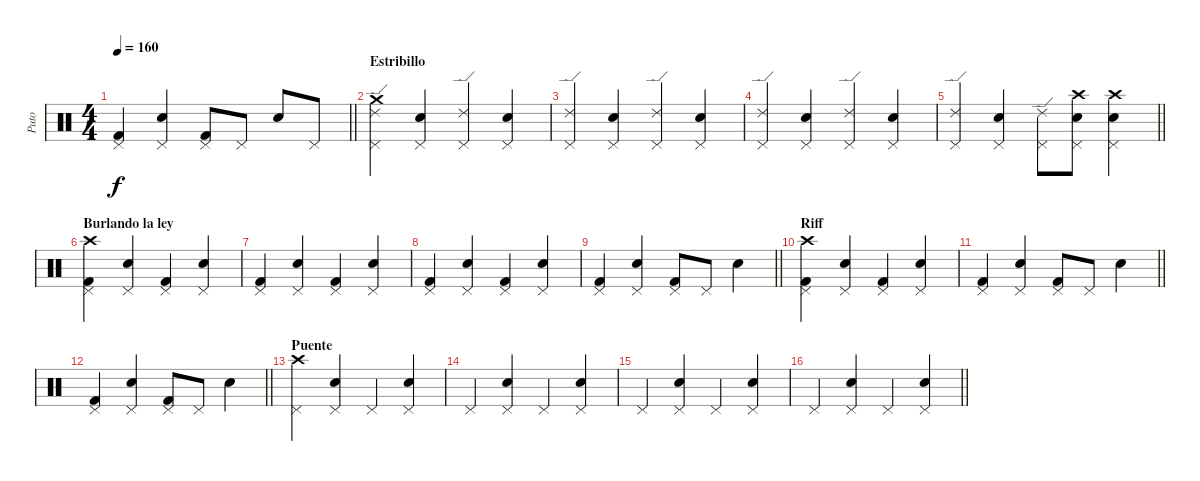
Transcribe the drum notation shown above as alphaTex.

\track ("Puto" "Puto") {instrument percussion}
\staff {score}
\articulation defaults
\ts (4 4)
\tempo 160
\clef neutral
\barLineRight lightlight
\ks c
("Kick (hit) 2" "Pedal Hi-Hat (hit)").4{dy f} ("Snare (hit) 2" "Pedal Hi-Hat (hit)").4 ("Kick (hit) 2" "Pedal Hi-Hat (hit)").8 "Pedal Hi-Hat (hit)".8 "Snare (hit) 2".8 "Pedal Hi-Hat (hit)".8 |
\section ("" "Estribillo")
("Ride (edge) 2" "Crash medium (hit)" "Pedal Hi-Hat (hit)").4 ("Snare (hit) 2" "Pedal Hi-Hat (hit)").4 ("Ride (edge) 2" "Pedal Hi-Hat (hit)").4 ("Snare (hit) 2" "Pedal Hi-Hat (hit)").4 |
("Ride (edge) 2" "Pedal Hi-Hat (hit)").4 ("Snare (hit) 2" "Pedal Hi-Hat (hit)").4 ("Ride (edge) 2" "Pedal Hi-Hat (hit)").4 ("Snare (hit) 2" "Pedal Hi-Hat (hit)").4 |
("Ride (edge) 2" "Pedal Hi-Hat (hit)").4 ("Snare (hit) 2" "Pedal Hi-Hat (hit)").4 ("Ride (edge) 2" "Pedal Hi-Hat (hit)").4 ("Snare (hit) 2" "Pedal Hi-Hat (hit)").4 |
\barLineRight lightlight
("Ride (edge) 2" "Pedal Hi-Hat (hit)").4 ("Snare (hit) 2" "Pedal Hi-Hat (hit)").4 ("Ride (edge) 2" "Pedal Hi-Hat (hit)").8 ("Crash high (hit)" "Snare (hit) 2" "Pedal Hi-Hat (hit)").8 ("Crash high (hit)" "Snare (hit) 2" "Pedal Hi-Hat (hit)").4 |
\section ("" "Burlando la ley")
("Kick (hit) 2" "Crash high (hit)" "Pedal Hi-Hat (hit)").4 ("Snare (hit) 2" "Pedal Hi-Hat (hit)").4 ("Kick (hit) 2" "Pedal Hi-Hat (hit)").4 ("Snare (hit) 2" "Pedal Hi-Hat (hit)").4 |
("Kick (hit) 2" "Pedal Hi-Hat (hit)").4 ("Snare (hit) 2" "Pedal Hi-Hat (hit)").4 ("Kick (hit) 2" "Pedal Hi-Hat (hit)").4 ("Snare (hit) 2" "Pedal Hi-Hat (hit)").4 |
("Kick (hit) 2" "Pedal Hi-Hat (hit)").4 ("Snare (hit) 2" "Pedal Hi-Hat (hit)").4 ("Kick (hit) 2" "Pedal Hi-Hat (hit)").4 ("Snare (hit) 2" "Pedal Hi-Hat (hit)").4 |
\barLineRight lightlight
("Kick (hit) 2" "Pedal Hi-Hat (hit)").4 ("Snare (hit) 2" "Pedal Hi-Hat (hit)").4 ("Kick (hit) 2" "Pedal Hi-Hat (hit)").8 "Pedal Hi-Hat (hit)".8 "Snare (hit) 2".4 |
\section ("" "Riff")
("Kick (hit) 2" "Crash high (hit)" "Pedal Hi-Hat (hit)").4 ("Snare (hit) 2" "Pedal Hi-Hat (hit)").4 ("Kick (hit) 2" "Pedal Hi-Hat (hit)").4 ("Snare (hit) 2" "Pedal Hi-Hat (hit)").4 |
\barLineRight lightlight
("Kick (hit) 2" "Pedal Hi-Hat (hit)").4 ("Snare (hit) 2" "Pedal Hi-Hat (hit)").4 ("Kick (hit) 2" "Pedal Hi-Hat (hit)").8 "Pedal Hi-Hat (hit)".8 "Snare (hit) 2".4 |
\barLineRight lightlight
("Kick (hit) 2" "Pedal Hi-Hat (hit)").4 ("Snare (hit) 2" "Pedal Hi-Hat (hit)").4 ("Kick (hit) 2" "Pedal Hi-Hat (hit)").8 "Pedal Hi-Hat (hit)".8 "Snare (hit) 2".4 |
\section ("" "Puente")
("Crash high (hit)" "Pedal Hi-Hat (hit)").4 ("Snare (hit) 2" "Pedal Hi-Hat (hit)").4 "Pedal Hi-Hat (hit)".4 ("Snare (hit) 2" "Pedal Hi-Hat (hit)").4 |
"Pedal Hi-Hat (hit)".4 ("Snare (hit) 2" "Pedal Hi-Hat (hit)").4 "Pedal Hi-Hat (hit)".4 ("Snare (hit) 2" "Pedal Hi-Hat (hit)").4 |
"Pedal Hi-Hat (hit)".4 ("Snare (hit) 2" "Pedal Hi-Hat (hit)").4 "Pedal Hi-Hat (hit)".4 ("Snare (hit) 2" "Pedal Hi-Hat (hit)").4 |
\barLineRight lightlight "Pedal Hi-Hat (hit)".4
("Snare (hit) 2" "Pedal Hi-Hat (hit)").4 "Pedal Hi-Hat (hit)".4 ("Snare (hit) 2" "Pedal Hi-Hat (hit)").4
